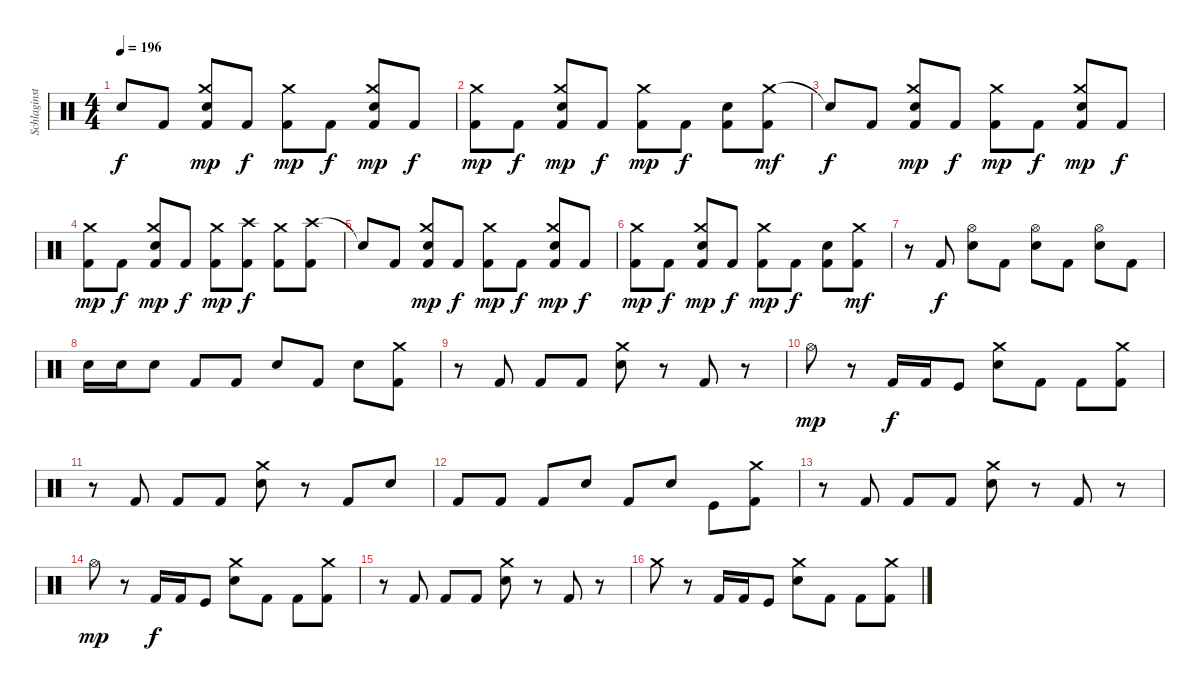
\track ("Schlaginstrumente - Auswahl" "Schlaginst") {instrument percussion}
\staff
\articulation defaults
\ts (4 4)
\tempo 196
\clef neutral
\ks c "Snare (hit)"{t}.8{dy f} "Kick (hit) 2".8
("Crash medium (hit)" "Electric Snare (hit)" "Kick (hit) 2").8{dy mp} "Kick (hit) 2".8{dy f} ("Crash medium (hit)" "Kick (hit) 2").8{dy mp} "Kick (hit) 2".8{dy f} ("Crash medium (hit)" "Electric Snare (hit)" "Kick (hit) 2").8{dy mp} "Kick (hit) 2".8{dy f} |
("Crash medium (hit)" "Kick (hit) 2").8{dy mp} "Kick (hit) 2".8{dy f} ("Crash medium (hit)" "Electric Snare (hit)" "Kick (hit) 2").8{dy mp} "Kick (hit) 2".8{dy f} ("Crash medium (hit)" "Kick (hit) 2").8{dy mp} "Kick (hit) 2".8{dy f} ("Electric Snare (hit)" "Kick (hit) 2").8 ("Crash medium (hit)" "Kick (hit) 2").8{dy mf} |
"Snare (hit)"{t}.8{dy f} "Kick (hit) 2".8 ("Crash medium (hit)" "Electric Snare (hit)" "Kick (hit) 2").8{dy mp} "Kick (hit) 2".8{dy f} ("Crash medium (hit)" "Kick (hit) 2").8{dy mp} "Kick (hit) 2".8{dy f} ("Crash medium (hit)" "Electric Snare (hit)" "Kick (hit) 2").8{dy mp} "Kick (hit) 2".8{dy f} |
("Crash medium (hit)" "Kick (hit) 2").8{dy mp} "Kick (hit) 2".8{dy f} ("Crash medium (hit)" "Electric Snare (hit)" "Kick (hit) 2").8{dy mp} "Kick (hit) 2".8{dy f} ("Crash medium (hit)" "Kick (hit) 2").8{dy mp} ("Crash high (hit)" "Kick (hit) 2").8{dy f} ("Crash medium (hit)" "Kick (hit) 2").8 ("Crash high (hit)" "Kick (hit) 2").8 |
"Snare (hit)"{t}.8 "Kick (hit) 2".8 ("Crash medium (hit)" "Electric Snare (hit)" "Kick (hit) 2").8{dy mp} "Kick (hit) 2".8{dy f} ("Crash medium (hit)" "Kick (hit) 2").8{dy mp} "Kick (hit) 2".8{dy f} ("Crash medium (hit)" "Electric Snare (hit)" "Kick (hit) 2").8{dy mp} "Kick (hit) 2".8{dy f} |
("Crash medium (hit)" "Kick (hit) 2").8{dy mp} "Kick (hit) 2".8{dy f} ("Crash medium (hit)" "Electric Snare (hit)" "Kick (hit) 2").8{dy mp} "Kick (hit) 2".8{dy f} ("Crash medium (hit)" "Kick (hit) 2").8{dy mp} "Kick (hit) 2".8{dy f} ("Electric Snare (hit)" "Kick (hit) 2").8 ("Crash medium (hit)" "Kick (hit) 2").8{dy mf} |
r.8 "Kick (hit) 2".8{dy f} ("Hi-Hat (open)" "Electric Snare (hit)").8 "Kick (hit) 2".8 ("Hi-Hat (open)" "Electric Snare (hit)").8 "Kick (hit) 2".8 ("Hi-Hat (open)" "Electric Snare (hit)").8 "Kick (hit) 2".8 |
"Electric Snare (hit)".16 "Electric Snare (hit)".16 "Electric Snare (hit)".8 "Kick (hit) 2".8 "Kick (hit) 2".8 "Electric Snare (hit)".8 "Kick (hit) 2".8 "Electric Snare (hit)".8 ("Crash medium (hit)" "Kick (hit) 2").8{volume 3} |
r.8 "Kick (hit) 2".8 "Kick (hit) 2".8 "Kick (hit) 2".8 ("Crash medium (hit)" "Snare (hit) 2").8 r.8 "Kick (hit) 2".8 r.8 |
"Hi-Hat (open)".8{dy mp} r.8 "Kick (hit) 2".16{dy f} "Kick (hit) 2".16 "Kick (hit)".8 ("Crash medium (hit)" "Electric Snare (hit)").8 "Kick (hit) 2".8 "Kick (hit) 2".8 ("Crash medium (hit)" "Kick (hit) 2").8 |
r.8 "Kick (hit) 2".8 "Kick (hit) 2".8 "Kick (hit) 2".8 ("Crash medium (hit)" "Snare (hit) 2").8 r.8 "Kick (hit) 2".8 "Electric Snare (hit)".8{volume 16} |
"Kick (hit) 2".8 "Kick (hit) 2".8 "Kick (hit) 2".8 "Electric Snare (hit)".8 "Kick (hit) 2".8 "Electric Snare (hit)".8 "Kick (hit)".8 ("Crash medium (hit)" "Kick (hit) 2").8{volume 13} |
r.8 "Kick (hit) 2".8 "Kick (hit) 2".8 "Kick (hit) 2".8 ("Crash medium (hit)" "Snare (hit) 2").8 r.8 "Kick (hit) 2".8 r.8 |
"Hi-Hat (open)".8{dy mp} r.8 "Kick (hit) 2".16{dy f} "Kick (hit) 2".16 "Kick (hit)".8 ("Crash medium (hit)" "Electric Snare (hit)").8 "Kick (hit) 2".8 "Kick (hit) 2".8 ("Crash medium (hit)" "Kick (hit) 2").8 |
r.8 "Kick (hit) 2".8 "Kick (hit) 2".8 "Kick (hit) 2".8 ("Crash medium (hit)" "Snare (hit) 2").8 r.8 "Kick (hit) 2".8 r.8 |
"Crash medium (hit)".8 r.8 "Kick (hit) 2".16 "Kick (hit) 2".16 "Kick (hit)".8 ("Crash medium (hit)" "Electric Snare (hit)").8 "Kick (hit) 2".8 "Kick (hit) 2".8 ("Crash medium (hit)" "Kick (hit) 2").8
